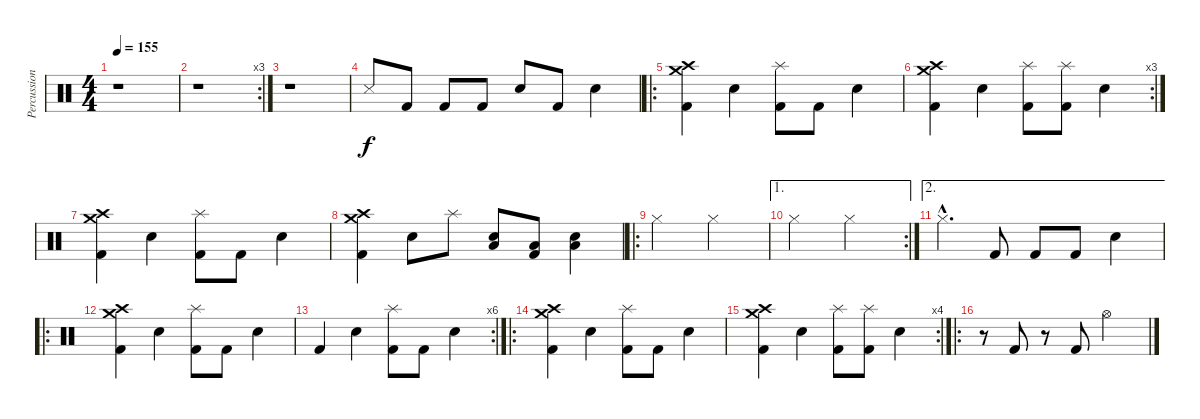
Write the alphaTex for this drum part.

\track ("Percussion" "Percussion") {instrument percussion}
\staff {score}
\articulation defaults
\ts (4 4)
\tempo 155
\clef neutral
\ks c
r.1{dy f} |
\rc 3
r.1 |
r.1 |
"Snare (side stick) 3".8 "Kick (hit) 2".8 "Kick (hit) 2".8 "Kick (hit) 2".8 "Electric Snare (hit)".8 "Kick (hit) 2".8 "Electric Snare (hit)".4 |
\ro
("Crash high (hit)" "Crash medium (hit)" "Kick (hit) 2").4 "Electric Snare (hit)".4 ("Splash (hit)" "Kick (hit) 2").8 "Kick (hit) 2".8 "Electric Snare (hit)".4 |
\rc 3
("Crash high (hit)" "Crash medium (hit)" "Kick (hit) 2").4 "Electric Snare (hit)".4 ("Splash (hit)" "Kick (hit) 2").8 ("Splash (hit)" "Kick (hit) 2").8 "Electric Snare (hit)".4 |
("Crash high (hit)" "Crash medium (hit)" "Kick (hit) 2").4 "Electric Snare (hit)".4 ("Splash (hit)" "Kick (hit) 2").8 "Kick (hit) 2".8 "Electric Snare (hit)".4 |
("Crash high (hit)" "Crash medium (hit)" "Kick (hit) 2").4 "Electric Snare (hit)".8 "Splash (hit)".8 ("Low Tom (hit)" "Electric Snare (hit)").8 ("Low Floor Tom (hit)" "Kick (hit) 2").8 ("Low Tom (hit)" "Electric Snare (hit)").4 |
\ro "Hi-Hat (closed)".2 "Hi-Hat (closed)".2
|
\ae 1
\rc 2 "Hi-Hat (closed)".2 "Hi-Hat (closed)".2
|
\ae 2 "Hi-Hat (closed)"{hac}.4{d} "Kick (hit) 2".8 "Kick (hit) 2".8 "Kick (hit) 2".8 "Electric Snare (hit)".4
|
\ro
("Crash high (hit)" "Crash medium (hit)" "Kick (hit) 2").4 "Electric Snare (hit)".4 ("Splash (hit)" "Kick (hit) 2").8 "Kick (hit) 2".8 "Electric Snare (hit)".4 |
\rc 6 "Kick (hit) 2".4 "Electric Snare (hit)".4
("Splash (hit)" "Kick (hit) 2").8 "Kick (hit) 2".8 "Electric Snare (hit)".4 |
\ro
("Crash high (hit)" "Crash medium (hit)" "Kick (hit) 2").4 "Electric Snare (hit)".4 ("Splash (hit)" "Kick (hit) 2").8 "Kick (hit) 2".8 "Electric Snare (hit)".4 |
\rc 4
("Crash high (hit)" "Crash medium (hit)" "Kick (hit) 2").4 "Electric Snare (hit)".4 ("Splash (hit)" "Kick (hit) 2").8 ("Splash (hit)" "Kick (hit) 2").8 "Electric Snare (hit)".4 |
\ro
r.8 "Kick (hit) 2".8 r.8 "Kick (hit) 2".8 "Hi-Hat (open)".2
